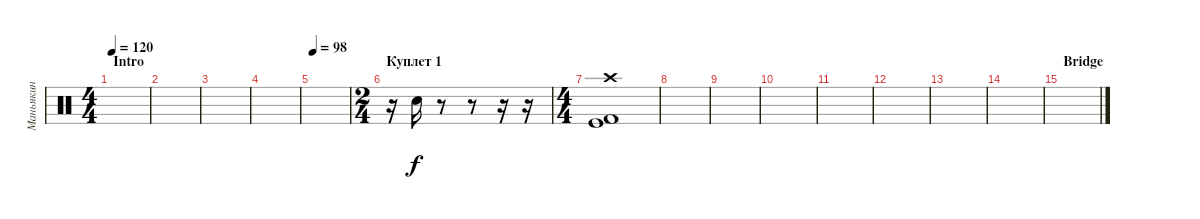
\track ("Маньякин" "Маньякин") {instrument percussion}
\staff {score}
\articulation defaults
\ts (4 4)
\section ("" "Intro")
\tempo 120
\tempo 50
\tempo 120
\clef neutral
\ks c
|
|
|
|
\tempo 98
|
\ts (2 4)
\section ("" "Куплет 1")
r.16 "Snare (hit) 2".16 r.8 r.8 r.16 r.16 |
\ts (4 4)
("Crash high (hit)" "Kick (hit)" "Kick (hit) 2").1 |
|
|
|
|
|
|
|
\section ("" "Bridge")
